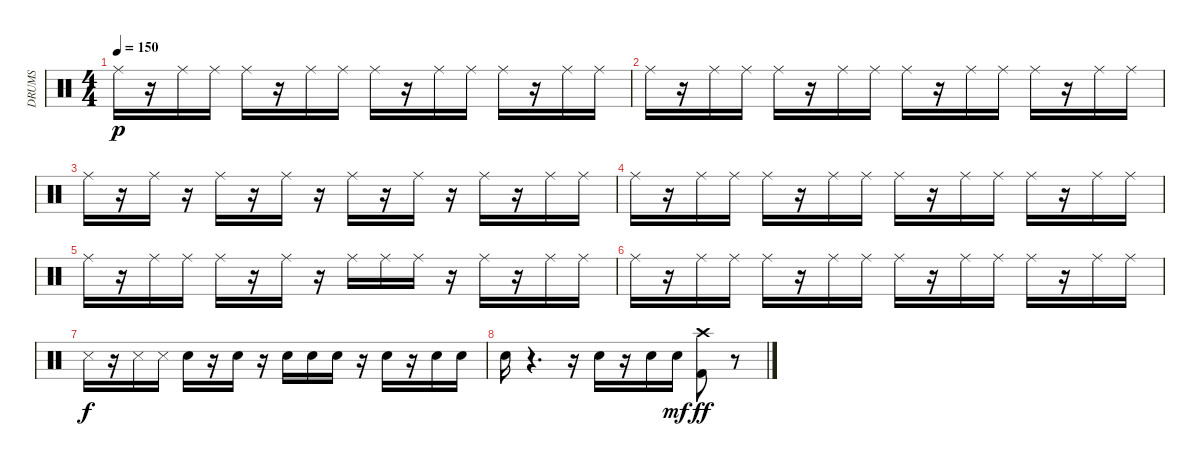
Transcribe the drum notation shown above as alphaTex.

\track ("DRUMS" "DRUMS") {instrument percussion}
\staff {score}
\articulation defaults
\ts (4 4)
\tempo 150
\clef neutral
\ks c "Ride (middle)".16{dy p}
r.16 "Ride (middle)".16 "Ride (middle)".16 "Ride (middle)".16 r.16 "Ride (middle)".16 "Ride (middle)".16 "Ride (middle)".16 r.16 "Ride (middle)".16 "Ride (middle)".16 "Ride (middle)".16 r.16 "Ride (middle)".16 "Ride (middle)".16 |
"Ride (middle)".16 r.16 "Ride (middle)".16 "Ride (middle)".16 "Ride (middle)".16 r.16 "Ride (middle)".16 "Ride (middle)".16 "Ride (middle)".16 r.16 "Ride (middle)".16 "Ride (middle)".16 "Ride (middle)".16 r.16 "Ride (middle)".16 "Ride (middle)".16 |
"Ride (middle)".16 r.16 "Ride (middle)".16 r.16 "Ride (middle)".16 r.16 "Ride (middle)".16 r.16 "Ride (middle)".16 r.16 "Ride (middle)".16 r.16 "Ride (middle)".16 r.16 "Ride (middle)".16 "Ride (middle)".16 |
"Ride (middle)".16 r.16 "Ride (middle)".16 "Ride (middle)".16 "Ride (middle)".16 r.16 "Ride (middle)".16 "Ride (middle)".16 "Ride (middle)".16 r.16 "Ride (middle)".16 "Ride (middle)".16 "Ride (middle)".16 r.16 "Ride (middle)".16 "Ride (middle)".16 |
"Ride (middle)".16 r.16 "Ride (middle)".16 "Ride (middle)".16 "Ride (middle)".16 r.16 "Ride (middle)".16 r.16 "Ride (middle)".16 "Ride (middle)".16 "Ride (middle)".16 r.16 "Ride (middle)".16 r.16 "Ride (middle)".16 "Ride (middle)".16 |
"Ride (middle)".16 r.16 "Ride (middle)".16 "Ride (middle)".16 "Ride (middle)".16 r.16 "Ride (middle)".16 "Ride (middle)".16 "Ride (middle)".16 r.16 "Ride (middle)".16 "Ride (middle)".16 "Ride (middle)".16 r.16 "Ride (middle)".16 "Ride (middle)".16 |
"Snare (side stick) 3".16{dy f} r.16 "Snare (side stick) 3".16 "Snare (side stick) 3".16 "Snare (hit) 2".16 r.16 "Snare (hit) 2".16 r.16 "Snare (hit) 2".16 "Snare (hit) 2".16 "Hand Clap (hit)".16 r.16 "Hand Clap (hit)".16 r.16 "Hand Clap (hit)".16 "Snare (hit) 2".16 |
"Snare (hit) 2".16 r.4{d} r.16 "Hand Clap (hit)".16 r.16 "Hand Clap (hit)".16 "Hand Clap (hit)".16{dy mf} ("Kick (hit) 2" "Crash high (hit)").8{dy ff} r.8
